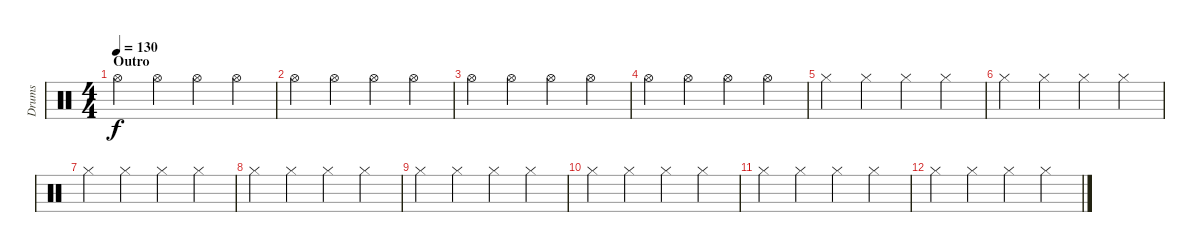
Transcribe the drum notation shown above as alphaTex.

\track ("Drums" "Drums") {instrument percussion}
\staff {score}
\articulation defaults
\ts (4 4)
\section ("" "Outro")
\tempo 130
\clef neutral
\ks c "Hi-Hat (open)".4{dy f} "Hi-Hat (open)".4 "Hi-Hat (open)".4 "Hi-Hat (open)".4
|
"Hi-Hat (open)".4 "Hi-Hat (open)".4 "Hi-Hat (open)".4 "Hi-Hat (open)".4 |
"Hi-Hat (open)".4 "Hi-Hat (open)".4 "Hi-Hat (open)".4 "Hi-Hat (open)".4 |
"Hi-Hat (open)".4 "Hi-Hat (open)".4 "Hi-Hat (open)".4 "Hi-Hat (open)".4 |
"Hi-Hat (closed)".4 "Hi-Hat (closed)".4 "Hi-Hat (closed)".4 "Hi-Hat (closed)".4 |
"Hi-Hat (closed)".4 "Hi-Hat (closed)".4 "Hi-Hat (closed)".4 "Hi-Hat (closed)".4 |
"Hi-Hat (closed)".4 "Hi-Hat (closed)".4 "Hi-Hat (closed)".4 "Hi-Hat (closed)".4 |
"Hi-Hat (closed)".4 "Hi-Hat (closed)".4 "Hi-Hat (closed)".4 "Hi-Hat (closed)".4 |
"Hi-Hat (closed)".4 "Hi-Hat (closed)".4 "Hi-Hat (closed)".4 "Hi-Hat (closed)".4 |
"Hi-Hat (closed)".4 "Hi-Hat (closed)".4 "Hi-Hat (closed)".4 "Hi-Hat (closed)".4 |
"Hi-Hat (closed)".4 "Hi-Hat (closed)".4 "Hi-Hat (closed)".4 "Hi-Hat (closed)".4 |
"Hi-Hat (closed)".4 "Hi-Hat (closed)".4 "Hi-Hat (closed)".4 "Hi-Hat (closed)".4
